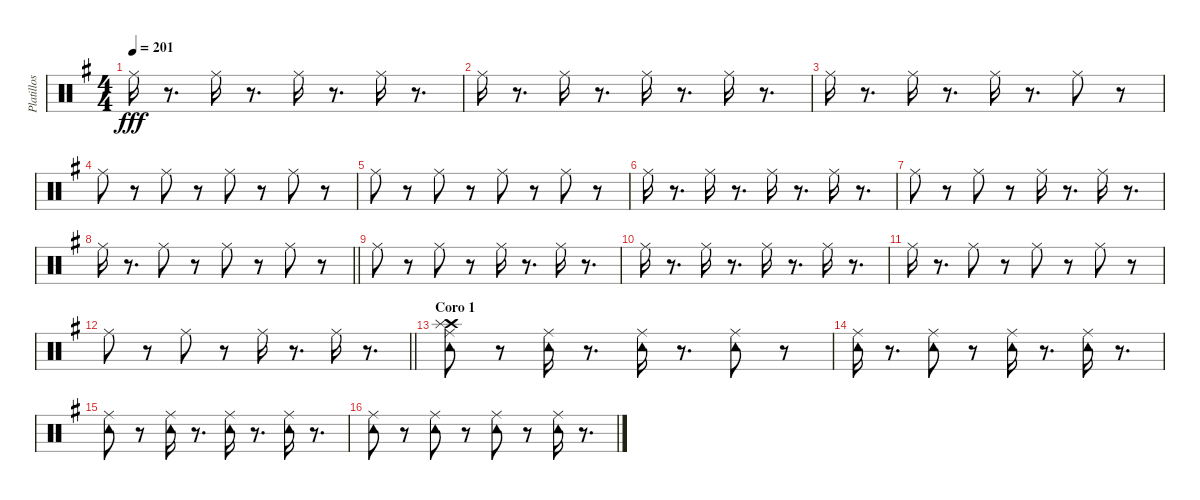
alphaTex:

\track ("Platillos y pandero" "Platillos ") {instrument percussion}
\staff {score}
\articulation defaults
\ts (4 4)
\tempo 201
\clef neutral
\ks g "Ride (middle)".16{dy fff}
r.8{d} "Ride (middle)".16 r.8{d} "Ride (middle)".16 r.8{d} "Ride (middle)".16 r.8{d} |
"Ride (middle)".16 r.8{d} "Ride (middle)".16 r.8{d} "Ride (middle)".16 r.8{d} "Ride (middle)".16 r.8{d} |
"Ride (middle)".16 r.8{d} "Ride (middle)".16 r.8{d} "Ride (middle)".16 r.8{d} "Ride (middle)".8 r.8 |
"Ride (middle)".8 r.8 "Ride (middle)".8 r.8 "Ride (middle)".8 r.8 "Ride (middle)".8 r.8 |
"Ride (middle)".8 r.8 "Ride (middle)".8 r.8 "Ride (middle)".8 r.8 "Ride (middle)".8 r.8 |
"Ride (middle)".16 r.8{d} "Ride (middle)".16 r.8{d} "Ride (middle)".16 r.8{d} "Ride (middle)".16 r.8{d} |
"Ride (middle)".8 r.8 "Ride (middle)".8 r.8 "Ride (middle)".16 r.8{d} "Ride (middle)".16 r.8{d} |
\barLineRight lightlight "Ride (middle)".16
r.8{d} "Ride (middle)".8 r.8 "Ride (middle)".8 r.8 "Ride (middle)".8 r.8 |
"Ride (middle)".8 r.8 "Ride (middle)".8 r.8 "Ride (middle)".16 r.8{d} "Ride (middle)".16 r.8{d} |
"Ride (middle)".16 r.8{d} "Ride (middle)".16 r.8{d} "Ride (middle)".16 r.8{d} "Ride (middle)".16 r.8{d} |
"Ride (middle)".16 r.8{d} "Ride (middle)".8 r.8 "Ride (middle)".8 r.8 "Ride (middle)".8 r.8 |
\barLineRight lightlight "Ride (middle)".8
r.8 "Ride (middle)".8 r.8 "Ride (middle)".16 r.8{d} "Ride (middle)".16 r.8{d} |
\section ("" "Coro 1")
("Crash high (hit)" "Splash (hit)" "Ride (middle)" "Tambourine (hit)").8 r.8 ("Tambourine (hit)" "Ride (middle)").16 r.8{d} ("Tambourine (hit)" "Ride (middle)").16 r.8{d} ("Tambourine (hit)" "Ride (middle)").8 r.8 |
("Tambourine (hit)" "Ride (middle)").16 r.8{d} ("Tambourine (hit)" "Ride (middle)").8 r.8 ("Ride (middle)" "Tambourine (hit)").16 r.8{d} ("Tambourine (hit)" "Ride (middle)").16 r.8{d} |
("Ride (middle)" "Tambourine (hit)").8 r.8 ("Ride (middle)" "Tambourine (hit)").16 r.8{d} ("Ride (middle)" "Tambourine (hit)").16 r.8{d} ("Ride (middle)" "Tambourine (hit)").16 r.8{d} |
("Tambourine (hit)" "Ride (middle)").8 r.8 ("Tambourine (hit)" "Ride (middle)").8 r.8 ("Tambourine (hit)" "Ride (middle)").8 r.8 ("Ride (middle)" "Tambourine (hit)").16 r.8{d}
